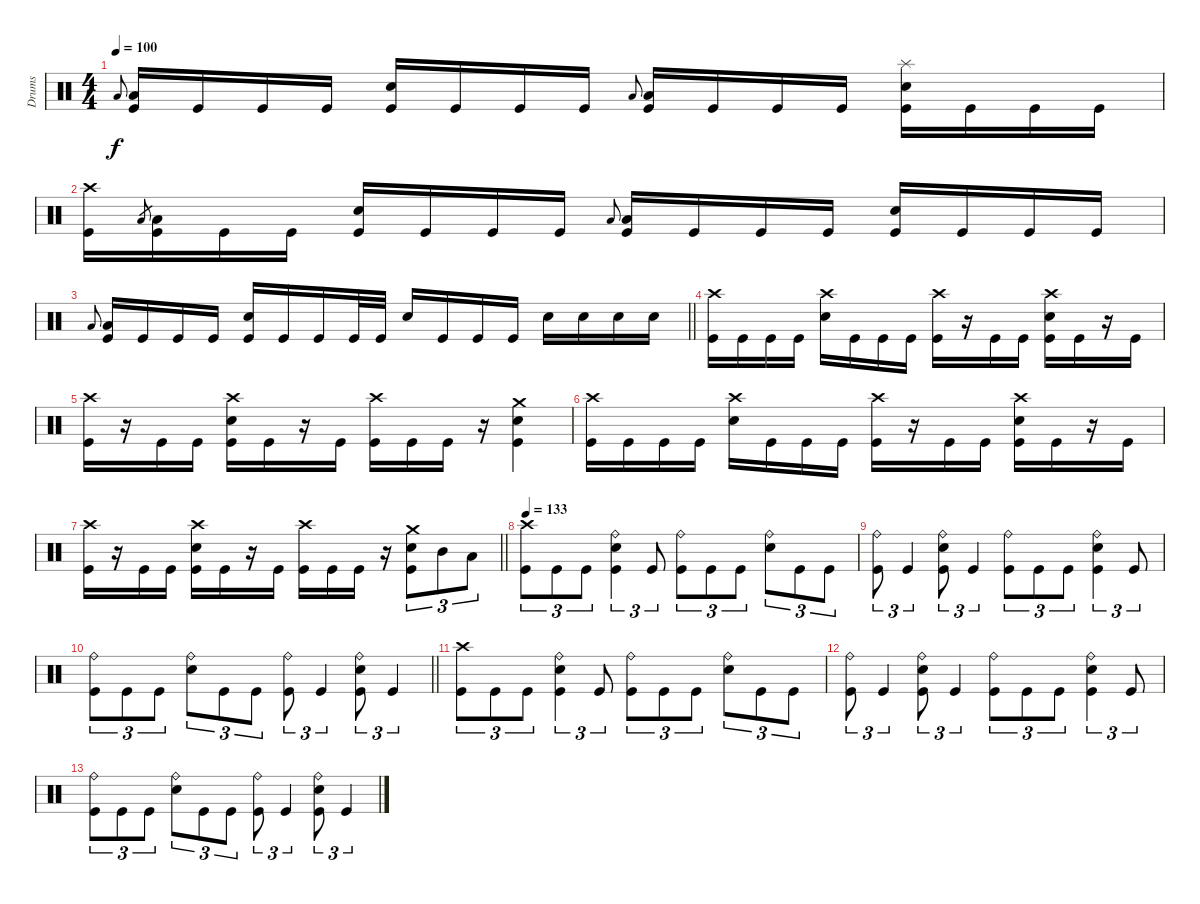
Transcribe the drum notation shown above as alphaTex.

\track ("Drums" "Drums") {instrument percussion}
\staff
\articulation defaults
\ts (4 4)
\tempo 100
\clef neutral
\ks c "Low Floor Tom (hit)".8{gr onbeat dy f}
("Low Floor Tom (hit)" "Kick (hit)").16 "Kick (hit)".16 "Kick (hit)".16 "Kick (hit)".16 ("Electric Snare (hit)" "Kick (hit)").16 "Kick (hit)".16 "Kick (hit)".16 "Kick (hit)".16 "Low Floor Tom (hit)".8{gr onbeat} ("Low Floor Tom (hit)" "Kick (hit)").16 "Kick (hit)".16 "Kick (hit)".16 "Kick (hit)".16 ("Splash (hit)" "Electric Snare (hit)" "Kick (hit)").16 "Kick (hit)".16 "Kick (hit)".16 "Kick (hit)".16 |
("Crash high (hit)" "Kick (hit)").16 "Low Floor Tom (hit)".8{gr} ("Low Floor Tom (hit)" "Kick (hit)").16 "Kick (hit)".16 "Kick (hit)".16 ("Electric Snare (hit)" "Kick (hit)").16 "Kick (hit)".16 "Kick (hit)".16 "Kick (hit)".16 "Low Floor Tom (hit)".8{gr onbeat} ("Low Floor Tom (hit)" "Kick (hit)").16 "Kick (hit)".16 "Kick (hit)".16 "Kick (hit)".16 ("Electric Snare (hit)" "Kick (hit)").16 "Kick (hit)".16 "Kick (hit)".16 "Kick (hit)".16 |
\barLineRight lightlight "Low Floor Tom (hit)".8{gr onbeat}
("Low Floor Tom (hit)" "Kick (hit)").16 "Kick (hit)".16 "Kick (hit)".16 "Kick (hit)".16 ("Electric Snare (hit)" "Kick (hit)").16 "Kick (hit)".16 "Kick (hit)".16 "Kick (hit)".32 "Kick (hit)".32 "Electric Snare (hit)".16 "Kick (hit)".16 "Kick (hit)".16 "Kick (hit)".16 "Electric Snare (hit)".16 "Electric Snare (hit)".16 "Electric Snare (hit)".16 "Electric Snare (hit)".16 |
("Crash high (hit)" "Kick (hit)").16 "Kick (hit)".16 "Kick (hit)".16 "Kick (hit)".16 ("Crash high (hit)" "Electric Snare (hit)").16 "Kick (hit)".16 "Kick (hit)".16 "Kick (hit)".16 ("Crash high (hit)" "Kick (hit)").16 r.16 "Kick (hit)".16 "Kick (hit)".16 ("Crash high (hit)" "Electric Snare (hit)" "Kick (hit)").16 "Kick (hit)".16 r.16 "Kick (hit)".16 |
("Crash high (hit)" "Kick (hit)").16 r.16 "Kick (hit)".16 "Kick (hit)".16 ("Crash high (hit)" "Electric Snare (hit)" "Kick (hit)").16 "Kick (hit)".16 r.16 "Kick (hit)".16 ("Crash high (hit)" "Kick (hit)").16 "Kick (hit)".16 "Kick (hit)".16 r.16 ("Crash medium (hit)" "Electric Snare (hit)" "Kick (hit)").4 |
("Crash high (hit)" "Kick (hit)").16 "Kick (hit)".16 "Kick (hit)".16 "Kick (hit)".16 ("Crash high (hit)" "Electric Snare (hit)").16 "Kick (hit)".16 "Kick (hit)".16 "Kick (hit)".16 ("Crash high (hit)" "Kick (hit)").16 r.16 "Kick (hit)".16 "Kick (hit)".16 ("Crash high (hit)" "Electric Snare (hit)" "Kick (hit)").16 "Kick (hit)".16 r.16 "Kick (hit)".16 |
\barLineRight lightlight
("Crash high (hit)" "Kick (hit)").16 r.16 "Kick (hit)".16 "Kick (hit)".16 ("Crash high (hit)" "Electric Snare (hit)" "Kick (hit)").16 "Kick (hit)".16 r.16 "Kick (hit)".16 ("Crash high (hit)" "Kick (hit)").16 "Kick (hit)".16 "Kick (hit)".16 r.16 ("Crash medium (hit)" "Electric Snare (hit)" "Kick (hit)").8{tu (3 2)} "Mid Tom (hit)".8{tu (3 2)} "Low Tom (hit)".8{tu (3 2)} |
\tempo 133
("Crash high (hit)" "Kick (hit)").8{tu (3 2)} "Kick (hit)".8{tu (3 2)} "Kick (hit)".8{tu (3 2)} ("Ride (bell)" "Electric Snare (hit)" "Kick (hit)").4{tu (3 2)} "Kick (hit)".8{tu (3 2)} ("Ride (bell)" "Kick (hit)").8{tu (3 2)} "Kick (hit)".8{tu (3 2)} "Kick (hit)".8{tu (3 2)} ("Ride (bell)" "Electric Snare (hit)").8{tu (3 2)} "Kick (hit)".8{tu (3 2)} "Kick (hit)".8{tu (3 2)} |
("Ride (bell)" "Kick (hit)").8{tu (3 2)} "Kick (hit)".4{tu (3 2)} ("Ride (bell)" "Electric Snare (hit)" "Kick (hit)").8{tu (3 2)} "Kick (hit)".4{tu (3 2)} ("Ride (bell)" "Kick (hit)").8{tu (3 2)} "Kick (hit)".8{tu (3 2)} "Kick (hit)".8{tu (3 2)} ("Ride (bell)" "Electric Snare (hit)" "Kick (hit)").4{tu (3 2)} "Kick (hit)".8{tu (3 2)} |
\barLineRight lightlight
("Ride (bell)" "Kick (hit)").8{tu (3 2)} "Kick (hit)".8{tu (3 2)} "Kick (hit)".8{tu (3 2)} ("Ride (bell)" "Electric Snare (hit)").8{tu (3 2)} "Kick (hit)".8{tu (3 2)} "Kick (hit)".8{tu (3 2)} ("Ride (bell)" "Kick (hit)").8{tu (3 2)} "Kick (hit)".4{tu (3 2)} ("Ride (bell)" "Electric Snare (hit)" "Kick (hit)").8{tu (3 2)} "Kick (hit)".4{tu (3 2)} |
("Crash high (hit)" "Kick (hit)").8{tu (3 2)} "Kick (hit)".8{tu (3 2)} "Kick (hit)".8{tu (3 2)} ("Ride (bell)" "Electric Snare (hit)" "Kick (hit)").4{tu (3 2)} "Kick (hit)".8{tu (3 2)} ("Ride (bell)" "Kick (hit)").8{tu (3 2)} "Kick (hit)".8{tu (3 2)} "Kick (hit)".8{tu (3 2)} ("Ride (bell)" "Electric Snare (hit)").8{tu (3 2)} "Kick (hit)".8{tu (3 2)} "Kick (hit)".8{tu (3 2)} |
("Ride (bell)" "Kick (hit)").8{tu (3 2)} "Kick (hit)".4{tu (3 2)} ("Ride (bell)" "Electric Snare (hit)" "Kick (hit)").8{tu (3 2)} "Kick (hit)".4{tu (3 2)} ("Ride (bell)" "Kick (hit)").8{tu (3 2)} "Kick (hit)".8{tu (3 2)} "Kick (hit)".8{tu (3 2)} ("Ride (bell)" "Electric Snare (hit)" "Kick (hit)").4{tu (3 2)} "Kick (hit)".8{tu (3 2)} |
("Ride (bell)" "Kick (hit)").8{tu (3 2)} "Kick (hit)".8{tu (3 2)} "Kick (hit)".8{tu (3 2)} ("Ride (bell)" "Electric Snare (hit)").8{tu (3 2)} "Kick (hit)".8{tu (3 2)} "Kick (hit)".8{tu (3 2)} ("Ride (bell)" "Kick (hit)").8{tu (3 2)} "Kick (hit)".4{tu (3 2)} ("Ride (bell)" "Electric Snare (hit)" "Kick (hit)").8{tu (3 2)} "Kick (hit)".4{tu (3 2)}
